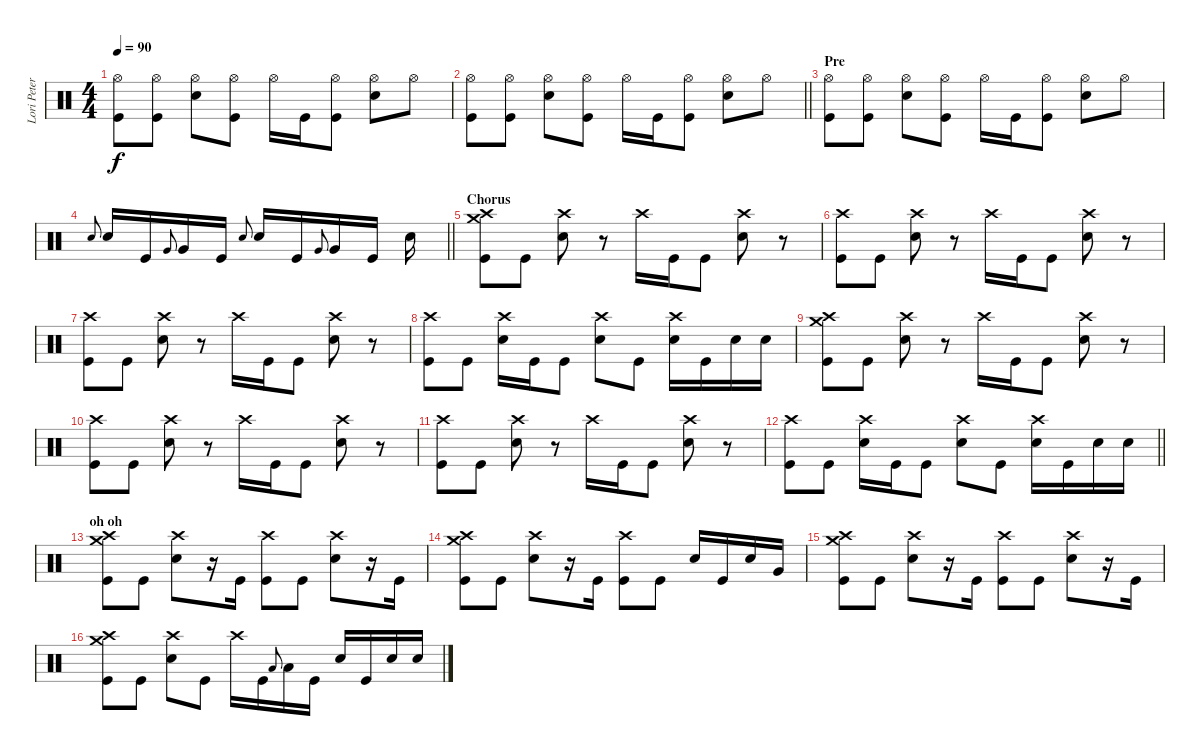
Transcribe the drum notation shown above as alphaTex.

\track ("Lori Peters" "Lori Peter") {instrument percussion}
\staff {score}
\articulation defaults
\ts (4 4)
\tempo 90
\clef neutral
\ks c
("Hi-Hat (open)" "Kick (hit)").8{dy f} ("Hi-Hat (open)" "Kick (hit)").8 ("Hi-Hat (open)" "Electric Snare (hit)").8 ("Hi-Hat (open)" "Kick (hit)").8 "Hi-Hat (open)".16 "Kick (hit)".16 ("Hi-Hat (open)" "Kick (hit)").8 ("Hi-Hat (open)" "Electric Snare (hit)").8 "Hi-Hat (open)".8 |
\barLineRight lightlight
("Hi-Hat (open)" "Kick (hit)").8 ("Hi-Hat (open)" "Kick (hit)").8 ("Hi-Hat (open)" "Electric Snare (hit)").8 ("Hi-Hat (open)" "Kick (hit)").8 "Hi-Hat (open)".16 "Kick (hit)".16 ("Hi-Hat (open)" "Kick (hit)").8 ("Hi-Hat (open)" "Electric Snare (hit)").8 "Hi-Hat (open)".8 |
\section ("" "Pre")
("Hi-Hat (open)" "Kick (hit)").8 ("Hi-Hat (open)" "Kick (hit)").8 ("Hi-Hat (open)" "Electric Snare (hit)").8 ("Hi-Hat (open)" "Kick (hit)").8 "Hi-Hat (open)".16 "Kick (hit)".16 ("Hi-Hat (open)" "Kick (hit)").8 ("Hi-Hat (open)" "Electric Snare (hit)").8 "Hi-Hat (open)".8 |
\barLineRight lightlight "Electric Snare (hit)".8{gr onbeat} "Electric Snare (hit)".16 "Kick (hit)".16 "Very Low Tom (hit)".8{gr onbeat} "Very Low Tom (hit)".16 "Kick (hit)".16 "Electric Snare (hit)".8{gr onbeat} "Electric Snare (hit)".16 "Kick (hit)".16 "Very Low Tom (hit)".8{gr onbeat} "Very Low Tom (hit)".16 "Kick (hit)".16 "Electric Snare (hit)".16
|
\section ("" "Chorus")
("Crash high (hit)" "Crash medium (hit)" "Kick (hit)").8{volume 11} "Kick (hit)".8 ("Crash high (hit)" "Electric Snare (hit)").8 r.8 "Crash high (hit)".16 "Kick (hit)".16 "Kick (hit)".8 ("Crash high (hit)" "Electric Snare (hit)").8 r.8 |
("Crash high (hit)" "Kick (hit)").8 "Kick (hit)".8 ("Crash high (hit)" "Electric Snare (hit)").8 r.8 "Crash high (hit)".16 "Kick (hit)".16 "Kick (hit)".8 ("Crash high (hit)" "Electric Snare (hit)").8 r.8 |
("Crash high (hit)" "Kick (hit)").8 "Kick (hit)".8 ("Crash high (hit)" "Electric Snare (hit)").8 r.8 "Crash high (hit)".16 "Kick (hit)".16 "Kick (hit)".8 ("Crash high (hit)" "Electric Snare (hit)").8 r.8 |
("Crash high (hit)" "Kick (hit)").8 "Kick (hit)".8 ("Crash high (hit)" "Electric Snare (hit)").16 "Kick (hit)".16 "Kick (hit)".8 ("Crash high (hit)" "Electric Snare (hit)").8 "Kick (hit)".8 ("Crash high (hit)" "Electric Snare (hit)").16 "Kick (hit)".16 "Electric Snare (hit)".16 "Electric Snare (hit)".16 |
("Crash high (hit)" "Crash medium (hit)" "Kick (hit)").8 "Kick (hit)".8 ("Crash high (hit)" "Electric Snare (hit)").8 r.8 "Crash high (hit)".16 "Kick (hit)".16 "Kick (hit)".8 ("Crash high (hit)" "Electric Snare (hit)").8 r.8 |
("Crash high (hit)" "Kick (hit)").8 "Kick (hit)".8 ("Crash high (hit)" "Electric Snare (hit)").8 r.8 "Crash high (hit)".16 "Kick (hit)".16 "Kick (hit)".8 ("Crash high (hit)" "Electric Snare (hit)").8 r.8 |
("Crash high (hit)" "Kick (hit)").8 "Kick (hit)".8 ("Crash high (hit)" "Electric Snare (hit)").8 r.8 "Crash high (hit)".16 "Kick (hit)".16 "Kick (hit)".8 ("Crash high (hit)" "Electric Snare (hit)").8 r.8 |
\barLineRight lightlight
("Crash high (hit)" "Kick (hit)").8 "Kick (hit)".8 ("Crash high (hit)" "Electric Snare (hit)").16 "Kick (hit)".16 "Kick (hit)".8 ("Crash high (hit)" "Electric Snare (hit)").8 "Kick (hit)".8 ("Crash high (hit)" "Electric Snare (hit)").16 "Kick (hit)".16 "Electric Snare (hit)".16 "Electric Snare (hit)".16 |
\section ("" "oh oh")
("Crash high (hit)" "Crash medium (hit)" "Kick (hit)").8 "Kick (hit)".8 ("Crash high (hit)" "Electric Snare (hit)").8 r.16 "Kick (hit)".16 ("Crash high (hit)" "Kick (hit)").8 "Kick (hit)".8 ("Crash high (hit)" "Electric Snare (hit)").8 r.16 "Kick (hit)".16 |
("Crash high (hit)" "Crash medium (hit)" "Kick (hit)").8 "Kick (hit)".8 ("Crash high (hit)" "Electric Snare (hit)").8 r.16 "Kick (hit)".16 ("Crash high (hit)" "Kick (hit)").8 "Kick (hit)".8 "Electric Snare (hit)".16 "Kick (hit)".16 "Electric Snare (hit)".16 "Very Low Tom (hit)".16 |
("Crash high (hit)" "Crash medium (hit)" "Kick (hit)").8 "Kick (hit)".8 ("Crash high (hit)" "Electric Snare (hit)").8 r.16 "Kick (hit)".16 ("Crash high (hit)" "Kick (hit)").8 "Kick (hit)".8 ("Crash high (hit)" "Electric Snare (hit)").8 r.16 "Kick (hit)".16 |
("Crash high (hit)" "Crash medium (hit)" "Kick (hit)").8 "Kick (hit)".8 ("Crash high (hit)" "Electric Snare (hit)").8 "Kick (hit)".8 "Crash high (hit)".16 "Kick (hit)".16 "Low Tom (hit)".8{gr onbeat} "Low Tom (hit)".16 "Kick (hit)".16 "Electric Snare (hit)".16 "Kick (hit)".16 "Electric Snare (hit)".16 "Electric Snare (hit)".16
